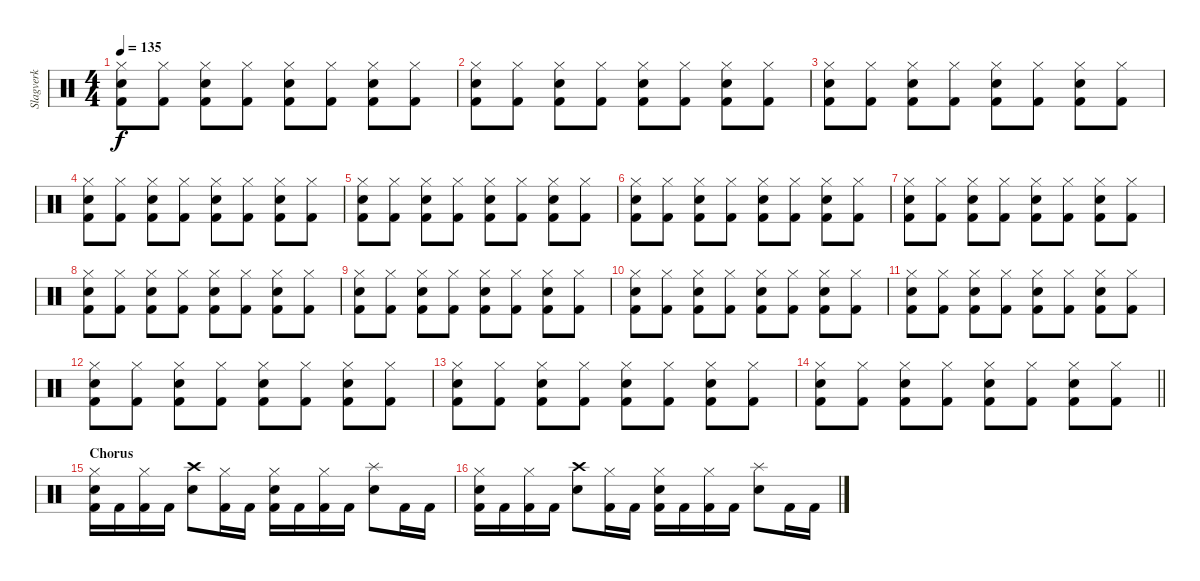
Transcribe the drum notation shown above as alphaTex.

\track ("Slagverk" "Slagverk") {instrument percussion}
\staff {score}
\articulation defaults
\ts (4 4)
\tempo 135
\clef neutral
\ks c
("Hi-Hat (closed)" "Snare (hit) 2" "Kick (hit) 2").8{dy f} ("Hi-Hat (closed)" "Kick (hit) 2").8 ("Hi-Hat (closed)" "Snare (hit) 2" "Kick (hit) 2").8 ("Hi-Hat (closed)" "Kick (hit) 2").8 ("Hi-Hat (closed)" "Snare (hit) 2" "Kick (hit) 2").8 ("Hi-Hat (closed)" "Kick (hit) 2").8 ("Hi-Hat (closed)" "Snare (hit) 2" "Kick (hit) 2").8 ("Hi-Hat (closed)" "Kick (hit) 2").8 |
("Hi-Hat (closed)" "Snare (hit) 2" "Kick (hit) 2").8 ("Hi-Hat (closed)" "Kick (hit) 2").8 ("Hi-Hat (closed)" "Snare (hit) 2" "Kick (hit) 2").8 ("Hi-Hat (closed)" "Kick (hit) 2").8 ("Hi-Hat (closed)" "Snare (hit) 2" "Kick (hit) 2").8 ("Hi-Hat (closed)" "Kick (hit) 2").8 ("Hi-Hat (closed)" "Snare (hit) 2" "Kick (hit) 2").8 ("Hi-Hat (closed)" "Kick (hit) 2").8 |
("Hi-Hat (closed)" "Snare (hit) 2" "Kick (hit) 2").8 ("Hi-Hat (closed)" "Kick (hit) 2").8 ("Hi-Hat (closed)" "Snare (hit) 2" "Kick (hit) 2").8 ("Hi-Hat (closed)" "Kick (hit) 2").8 ("Hi-Hat (closed)" "Snare (hit) 2" "Kick (hit) 2").8 ("Hi-Hat (closed)" "Kick (hit) 2").8 ("Hi-Hat (closed)" "Snare (hit) 2" "Kick (hit) 2").8 ("Hi-Hat (closed)" "Kick (hit) 2").8 |
("Hi-Hat (closed)" "Snare (hit) 2" "Kick (hit) 2").8 ("Hi-Hat (closed)" "Kick (hit) 2").8 ("Hi-Hat (closed)" "Snare (hit) 2" "Kick (hit) 2").8 ("Hi-Hat (closed)" "Kick (hit) 2").8 ("Hi-Hat (closed)" "Snare (hit) 2" "Kick (hit) 2").8 ("Hi-Hat (closed)" "Kick (hit) 2").8 ("Hi-Hat (closed)" "Snare (hit) 2" "Kick (hit) 2").8 ("Hi-Hat (closed)" "Kick (hit) 2").8 |
("Hi-Hat (closed)" "Snare (hit) 2" "Kick (hit) 2").8 ("Hi-Hat (closed)" "Kick (hit) 2").8 ("Hi-Hat (closed)" "Snare (hit) 2" "Kick (hit) 2").8 ("Hi-Hat (closed)" "Kick (hit) 2").8 ("Hi-Hat (closed)" "Snare (hit) 2" "Kick (hit) 2").8 ("Hi-Hat (closed)" "Kick (hit) 2").8 ("Hi-Hat (closed)" "Snare (hit) 2" "Kick (hit) 2").8 ("Hi-Hat (closed)" "Kick (hit) 2").8 |
("Hi-Hat (closed)" "Snare (hit) 2" "Kick (hit) 2").8 ("Hi-Hat (closed)" "Kick (hit) 2").8 ("Hi-Hat (closed)" "Snare (hit) 2" "Kick (hit) 2").8 ("Hi-Hat (closed)" "Kick (hit) 2").8 ("Hi-Hat (closed)" "Snare (hit) 2" "Kick (hit) 2").8 ("Hi-Hat (closed)" "Kick (hit) 2").8 ("Hi-Hat (closed)" "Snare (hit) 2" "Kick (hit) 2").8 ("Hi-Hat (closed)" "Kick (hit) 2").8 |
("Hi-Hat (closed)" "Snare (hit) 2" "Kick (hit) 2").8 ("Hi-Hat (closed)" "Kick (hit) 2").8 ("Hi-Hat (closed)" "Snare (hit) 2" "Kick (hit) 2").8 ("Hi-Hat (closed)" "Kick (hit) 2").8 ("Hi-Hat (closed)" "Snare (hit) 2" "Kick (hit) 2").8 ("Hi-Hat (closed)" "Kick (hit) 2").8 ("Hi-Hat (closed)" "Snare (hit) 2" "Kick (hit) 2").8 ("Hi-Hat (closed)" "Kick (hit) 2").8 |
("Hi-Hat (closed)" "Snare (hit) 2" "Kick (hit) 2").8 ("Hi-Hat (closed)" "Kick (hit) 2").8 ("Hi-Hat (closed)" "Snare (hit) 2" "Kick (hit) 2").8 ("Hi-Hat (closed)" "Kick (hit) 2").8 ("Hi-Hat (closed)" "Snare (hit) 2" "Kick (hit) 2").8 ("Hi-Hat (closed)" "Kick (hit) 2").8 ("Hi-Hat (closed)" "Snare (hit) 2" "Kick (hit) 2").8 ("Hi-Hat (closed)" "Kick (hit) 2").8 |
("Hi-Hat (closed)" "Snare (hit) 2" "Kick (hit) 2").8 ("Hi-Hat (closed)" "Kick (hit) 2").8 ("Hi-Hat (closed)" "Snare (hit) 2" "Kick (hit) 2").8 ("Hi-Hat (closed)" "Kick (hit) 2").8 ("Hi-Hat (closed)" "Snare (hit) 2" "Kick (hit) 2").8 ("Hi-Hat (closed)" "Kick (hit) 2").8 ("Hi-Hat (closed)" "Snare (hit) 2" "Kick (hit) 2").8 ("Hi-Hat (closed)" "Kick (hit) 2").8 |
("Hi-Hat (closed)" "Snare (hit) 2" "Kick (hit) 2").8 ("Hi-Hat (closed)" "Kick (hit) 2").8 ("Hi-Hat (closed)" "Snare (hit) 2" "Kick (hit) 2").8 ("Hi-Hat (closed)" "Kick (hit) 2").8 ("Hi-Hat (closed)" "Snare (hit) 2" "Kick (hit) 2").8 ("Hi-Hat (closed)" "Kick (hit) 2").8 ("Hi-Hat (closed)" "Snare (hit) 2" "Kick (hit) 2").8 ("Hi-Hat (closed)" "Kick (hit) 2").8 |
("Hi-Hat (closed)" "Snare (hit) 2" "Kick (hit) 2").8 ("Hi-Hat (closed)" "Kick (hit) 2").8 ("Hi-Hat (closed)" "Snare (hit) 2" "Kick (hit) 2").8 ("Hi-Hat (closed)" "Kick (hit) 2").8 ("Hi-Hat (closed)" "Snare (hit) 2" "Kick (hit) 2").8 ("Hi-Hat (closed)" "Kick (hit) 2").8 ("Hi-Hat (closed)" "Snare (hit) 2" "Kick (hit) 2").8 ("Hi-Hat (closed)" "Kick (hit) 2").8 |
("Hi-Hat (closed)" "Snare (hit) 2" "Kick (hit) 2").8 ("Hi-Hat (closed)" "Kick (hit) 2").8 ("Hi-Hat (closed)" "Snare (hit) 2" "Kick (hit) 2").8 ("Hi-Hat (closed)" "Kick (hit) 2").8 ("Hi-Hat (closed)" "Snare (hit) 2" "Kick (hit) 2").8 ("Hi-Hat (closed)" "Kick (hit) 2").8 ("Hi-Hat (closed)" "Snare (hit) 2" "Kick (hit) 2").8 ("Hi-Hat (closed)" "Kick (hit) 2").8 |
("Hi-Hat (closed)" "Snare (hit) 2" "Kick (hit) 2").8 ("Hi-Hat (closed)" "Kick (hit) 2").8 ("Hi-Hat (closed)" "Snare (hit) 2" "Kick (hit) 2").8 ("Hi-Hat (closed)" "Kick (hit) 2").8 ("Hi-Hat (closed)" "Snare (hit) 2" "Kick (hit) 2").8 ("Hi-Hat (closed)" "Kick (hit) 2").8 ("Hi-Hat (closed)" "Snare (hit) 2" "Kick (hit) 2").8 ("Hi-Hat (closed)" "Kick (hit) 2").8 |
\barLineRight lightlight
("Hi-Hat (closed)" "Snare (hit) 2" "Kick (hit) 2").8 ("Hi-Hat (closed)" "Kick (hit) 2").8 ("Hi-Hat (closed)" "Snare (hit) 2" "Kick (hit) 2").8 ("Hi-Hat (closed)" "Kick (hit) 2").8 ("Hi-Hat (closed)" "Snare (hit) 2" "Kick (hit) 2").8 ("Hi-Hat (closed)" "Kick (hit) 2").8 ("Hi-Hat (closed)" "Snare (hit) 2" "Kick (hit) 2").8 ("Hi-Hat (closed)" "Kick (hit) 2").8 |
\section ("" "Chorus")
("Hi-Hat (closed)" "Snare (hit) 2" "Kick (hit) 2").16 "Kick (hit) 2".16 ("Hi-Hat (closed)" "Kick (hit) 2").16 "Kick (hit) 2".16 ("Crash high (hit)" "Snare (hit) 2").8 ("Hi-Hat (closed)" "Kick (hit) 2").16 "Kick (hit) 2".16 ("Hi-Hat (closed)" "Snare (hit) 2" "Kick (hit) 2").16 "Kick (hit) 2".16 ("Hi-Hat (closed)" "Kick (hit) 2").16 "Kick (hit) 2".16 ("Splash (hit)" "Snare (hit) 2").8 "Kick (hit) 2".16 "Kick (hit) 2".16 |
("Hi-Hat (closed)" "Snare (hit) 2" "Kick (hit) 2").16 "Kick (hit) 2".16 ("Hi-Hat (closed)" "Kick (hit) 2").16 "Kick (hit) 2".16 ("Crash high (hit)" "Snare (hit) 2").8 ("Hi-Hat (closed)" "Kick (hit) 2").16 "Kick (hit) 2".16 ("Hi-Hat (closed)" "Snare (hit) 2" "Kick (hit) 2").16 "Kick (hit) 2".16 ("Hi-Hat (closed)" "Kick (hit) 2").16 "Kick (hit) 2".16 ("Splash (hit)" "Snare (hit) 2").8 "Kick (hit) 2".16 "Kick (hit) 2".16
